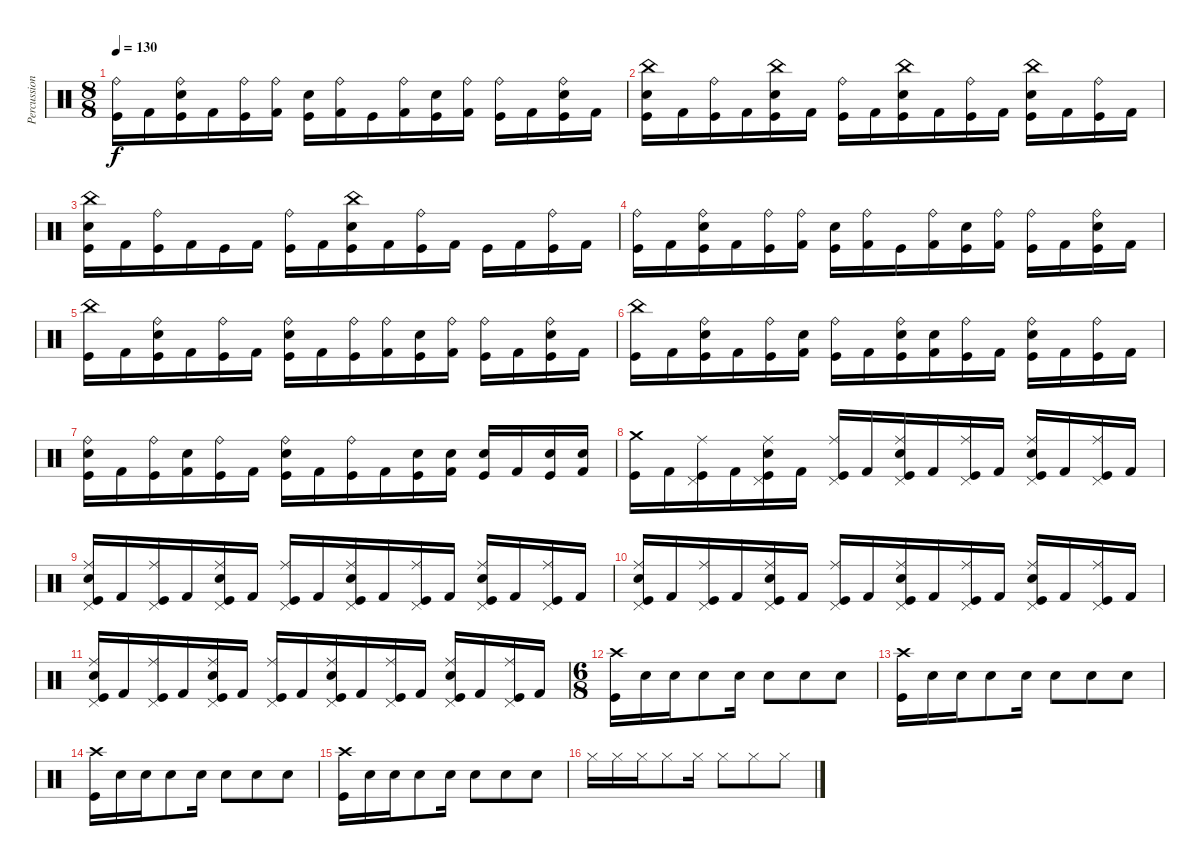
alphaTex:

\track ("Percussion" "Percussion") {instrument percussion}
\staff {score}
\articulation defaults
\ts (8 8)
\tempo 130
\clef neutral
\ks c
("Ride (bell)" "Kick (hit)").16{dy f} "Kick (hit) 2".16 ("Ride (bell)" "Electric Snare (hit)" "Kick (hit)").16 "Kick (hit) 2".16 ("Ride (bell)" "Kick (hit)").16 ("Ride (bell)" "Kick (hit) 2").16 ("Electric Snare (hit)" "Kick (hit)").16 ("Ride (bell)" "Kick (hit) 2").16 "Kick (hit)".16 ("Ride (bell)" "Kick (hit) 2").16 ("Electric Snare (hit)" "Kick (hit)").16 ("Ride (bell)" "Kick (hit) 2").16 ("Ride (bell)" "Kick (hit)").16 "Kick (hit) 2".16 ("Ride (bell)" "Electric Snare (hit)" "Kick (hit)").16 "Kick (hit) 2".16 |
("China (hit)" "Snare (hit) 2" "Kick (hit)").16 "Kick (hit) 2".16 ("Ride (bell)" "Kick (hit)").16 "Kick (hit) 2".16 ("China (hit)" "Snare (hit) 2" "Kick (hit)").16 "Kick (hit) 2".16 ("Ride (bell)" "Kick (hit)").16 "Kick (hit) 2".16 ("China (hit)" "Snare (hit) 2" "Kick (hit)").16 "Kick (hit) 2".16 ("Ride (bell)" "Kick (hit)").16 "Kick (hit) 2".16 ("China (hit)" "Snare (hit) 2" "Kick (hit)").16 "Kick (hit) 2".16 ("Ride (bell)" "Kick (hit)").16 "Kick (hit) 2".16 |
("China (hit)" "Snare (hit) 2" "Kick (hit)").16 "Kick (hit) 2".16 ("Ride (bell)" "Kick (hit)").16 "Kick (hit) 2".16 "Kick (hit)".16 "Kick (hit) 2".16 ("Ride (bell)" "Kick (hit)").16 "Kick (hit) 2".16 ("China (hit)" "Snare (hit) 2" "Kick (hit)").16 "Kick (hit) 2".16 ("Ride (bell)" "Kick (hit)").16 "Kick (hit) 2".16 "Kick (hit)".16 "Kick (hit) 2".16 ("Ride (bell)" "Kick (hit)").16 "Kick (hit) 2".16 |
("Ride (bell)" "Kick (hit)").16 "Kick (hit) 2".16 ("Ride (bell)" "Electric Snare (hit)" "Kick (hit)").16 "Kick (hit) 2".16 ("Ride (bell)" "Kick (hit)").16 ("Ride (bell)" "Kick (hit) 2").16 ("Electric Snare (hit)" "Kick (hit)").16 ("Ride (bell)" "Kick (hit) 2").16 "Kick (hit)".16 ("Ride (bell)" "Kick (hit) 2").16 ("Electric Snare (hit)" "Kick (hit)").16 ("Ride (bell)" "Kick (hit) 2").16 ("Ride (bell)" "Kick (hit)").16 "Kick (hit) 2".16 ("Ride (bell)" "Electric Snare (hit)" "Kick (hit)").16 "Kick (hit) 2".16 |
("China (hit)" "Kick (hit)").16 "Kick (hit) 2".16 ("Ride (bell)" "Electric Snare (hit)" "Kick (hit)").16 "Kick (hit) 2".16 ("Ride (bell)" "Kick (hit)").16 "Kick (hit) 2".16 ("Ride (bell)" "Electric Snare (hit)" "Kick (hit)").16 "Kick (hit) 2".16 ("Ride (bell)" "Kick (hit)").16 ("Ride (bell)" "Kick (hit) 2").16 ("Electric Snare (hit)" "Kick (hit)").16 ("Ride (bell)" "Kick (hit) 2").16 ("Ride (bell)" "Kick (hit)").16 "Kick (hit) 2".16 ("Ride (bell)" "Electric Snare (hit)" "Kick (hit)").16 "Kick (hit) 2".16 |
("China (hit)" "Kick (hit)").16 "Kick (hit) 2".16 ("Ride (bell)" "Electric Snare (hit)" "Kick (hit)").16 "Kick (hit) 2".16 ("Ride (bell)" "Kick (hit)").16 ("Electric Snare (hit)" "Kick (hit) 2").16 ("Ride (bell)" "Kick (hit)").16 "Kick (hit) 2".16 ("Ride (bell)" "Electric Snare (hit)" "Kick (hit)").16 ("Electric Snare (hit)" "Kick (hit) 2").16 ("Ride (bell)" "Kick (hit)").16 "Kick (hit) 2".16 ("Ride (bell)" "Electric Snare (hit)" "Kick (hit)").16 "Kick (hit) 2".16 ("Ride (bell)" "Kick (hit)").16 "Kick (hit) 2".16 |
("Ride (bell)" "Electric Snare (hit)" "Kick (hit)").16 "Kick (hit) 2".16 ("Ride (bell)" "Kick (hit)").16 ("Electric Snare (hit)" "Kick (hit) 2").16 ("Ride (bell)" "Kick (hit)").16 "Kick (hit) 2".16 ("Ride (bell)" "Electric Snare (hit)" "Kick (hit)").16 "Kick (hit) 2".16 ("Ride (bell)" "Kick (hit)").16 "Kick (hit) 2".16 ("Snare (hit) 2" "Kick (hit)").16 ("Snare (hit) 2" "Kick (hit) 2").16 ("Snare (hit) 2" "Kick (hit)").16 "Kick (hit) 2".16 ("Snare (hit) 2" "Kick (hit)").16 ("Snare (hit) 2" "Kick (hit) 2").16 |
("Crash medium (hit)" "Kick (hit)").16 "Kick (hit) 2".16 ("Ride (middle)" "Pedal Hi-Hat (hit)" "Kick (hit)").16 "Kick (hit) 2".16 ("Ride (middle)" "Pedal Hi-Hat (hit)" "Kick (hit)" "Snare (hit) 2").16 "Kick (hit) 2".16 ("Ride (middle)" "Pedal Hi-Hat (hit)" "Kick (hit)").16 "Kick (hit) 2".16 ("Ride (middle)" "Pedal Hi-Hat (hit)" "Kick (hit)" "Snare (hit) 2").16 "Kick (hit) 2".16 ("Ride (middle)" "Pedal Hi-Hat (hit)" "Kick (hit)").16 "Kick (hit) 2".16 ("Ride (middle)" "Pedal Hi-Hat (hit)" "Kick (hit)" "Snare (hit) 2").16 "Kick (hit) 2".16 ("Ride (middle)" "Pedal Hi-Hat (hit)" "Kick (hit)").16 "Kick (hit) 2".16 |
("Snare (hit) 2" "Ride (middle)" "Kick (hit)" "Pedal Hi-Hat (hit)").16 "Kick (hit) 2".16 ("Ride (middle)" "Pedal Hi-Hat (hit)" "Kick (hit)").16 "Kick (hit) 2".16 ("Ride (middle)" "Pedal Hi-Hat (hit)" "Kick (hit)" "Snare (hit) 2").16 "Kick (hit) 2".16 ("Ride (middle)" "Pedal Hi-Hat (hit)" "Kick (hit)").16 "Kick (hit) 2".16 ("Ride (middle)" "Pedal Hi-Hat (hit)" "Kick (hit)" "Snare (hit) 2").16 "Kick (hit) 2".16 ("Ride (middle)" "Pedal Hi-Hat (hit)" "Kick (hit)").16 "Kick (hit) 2".16 ("Ride (middle)" "Pedal Hi-Hat (hit)" "Kick (hit)" "Snare (hit) 2").16 "Kick (hit) 2".16 ("Ride (middle)" "Pedal Hi-Hat (hit)" "Kick (hit)").16 "Kick (hit) 2".16 |
("Snare (hit) 2" "Ride (middle)" "Kick (hit)" "Pedal Hi-Hat (hit)").16 "Kick (hit) 2".16 ("Ride (middle)" "Pedal Hi-Hat (hit)" "Kick (hit)").16 "Kick (hit) 2".16 ("Ride (middle)" "Pedal Hi-Hat (hit)" "Kick (hit)" "Snare (hit) 2").16 "Kick (hit) 2".16 ("Ride (middle)" "Pedal Hi-Hat (hit)" "Kick (hit)").16 "Kick (hit) 2".16 ("Ride (middle)" "Pedal Hi-Hat (hit)" "Kick (hit)" "Snare (hit) 2").16 "Kick (hit) 2".16 ("Ride (middle)" "Pedal Hi-Hat (hit)" "Kick (hit)").16 "Kick (hit) 2".16 ("Ride (middle)" "Pedal Hi-Hat (hit)" "Kick (hit)" "Snare (hit) 2").16 "Kick (hit) 2".16 ("Ride (middle)" "Pedal Hi-Hat (hit)" "Kick (hit)").16 "Kick (hit) 2".16 |
("Snare (hit) 2" "Ride (middle)" "Kick (hit)" "Pedal Hi-Hat (hit)").16 "Kick (hit) 2".16 ("Ride (middle)" "Pedal Hi-Hat (hit)" "Kick (hit)").16 "Kick (hit) 2".16 ("Ride (middle)" "Pedal Hi-Hat (hit)" "Kick (hit)" "Snare (hit) 2").16 "Kick (hit) 2".16 ("Ride (middle)" "Pedal Hi-Hat (hit)" "Kick (hit)").16 "Kick (hit) 2".16 ("Ride (middle)" "Pedal Hi-Hat (hit)" "Kick (hit)" "Snare (hit) 2").16 "Kick (hit) 2".16 ("Ride (middle)" "Pedal Hi-Hat (hit)" "Kick (hit)").16 "Kick (hit) 2".16 ("Ride (middle)" "Pedal Hi-Hat (hit)" "Kick (hit)" "Snare (hit) 2").16 "Kick (hit) 2".16 ("Ride (middle)" "Pedal Hi-Hat (hit)" "Kick (hit)").16 "Kick (hit) 2".16 |
\ts (6 8)
("Kick (hit)" "Crash high (hit)").16 "Snare (hit) 2".16 "Snare (hit) 2".16 "Snare (hit) 2".8 "Snare (hit) 2".16 "Snare (hit) 2".8 "Snare (hit) 2".8 "Snare (hit) 2".8 |
("Kick (hit)" "Crash high (hit)").16 "Snare (hit) 2".16 "Snare (hit) 2".16 "Snare (hit) 2".8 "Snare (hit) 2".16 "Snare (hit) 2".8 "Snare (hit) 2".8 "Snare (hit) 2".8 |
("Kick (hit)" "Crash high (hit)").16 "Snare (hit) 2".16 "Snare (hit) 2".16 "Snare (hit) 2".8 "Snare (hit) 2".16 "Snare (hit) 2".8 "Snare (hit) 2".8 "Snare (hit) 2".8 |
("Kick (hit)" "Crash high (hit)").16 "Snare (hit) 2".16 "Snare (hit) 2".16 "Snare (hit) 2".8 "Snare (hit) 2".16 "Snare (hit) 2".8 "Snare (hit) 2".8 "Snare (hit) 2".8 |
"Hi-Hat (closed)".16 "Hi-Hat (closed)".16 "Hi-Hat (closed)".16 "Hi-Hat (closed)".8 "Hi-Hat (closed)".16 "Hi-Hat (closed)".8 "Hi-Hat (closed)".8 "Hi-Hat (closed)".8
